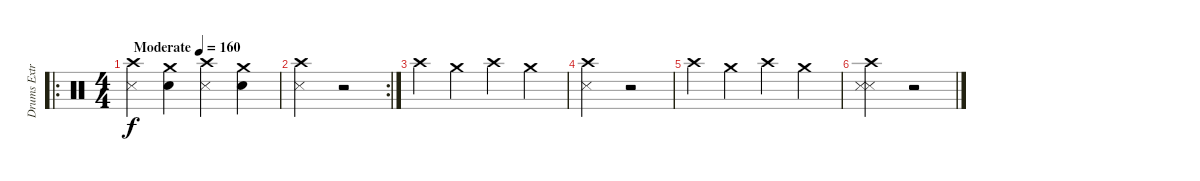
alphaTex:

\track ("Drums Extra" "Drums Extr") {instrument percussion}
\staff {score}
\articulation defaults
\ro
\ts (4 4)
\tempo (160 "Moderate")
\clef neutral
\ks c
("Crash high (hit)" "Metronome (hit)").4{dy f} ("Crash medium (hit)" "Snare (hit) 2").4 ("Crash high (hit)" "Metronome (hit)").4 ("Crash medium (hit)" "Snare (hit) 2").4 |
\rc 2
("Crash high (hit)" "Metronome (hit)").2 r.2 |
"Crash high (hit)".4 "Crash medium (hit)".4 "Crash high (hit)".4 "Crash medium (hit)".4 |
("Crash high (hit)" "Metronome (hit)").2 r.2 |
"Crash high (hit)".4 "Crash medium (hit)".4 "Crash high (hit)".4 "Crash medium (hit)".4 |
("Metronome (hit)" "Crash high (hit)" "Metronome (hit)").2 r.2
